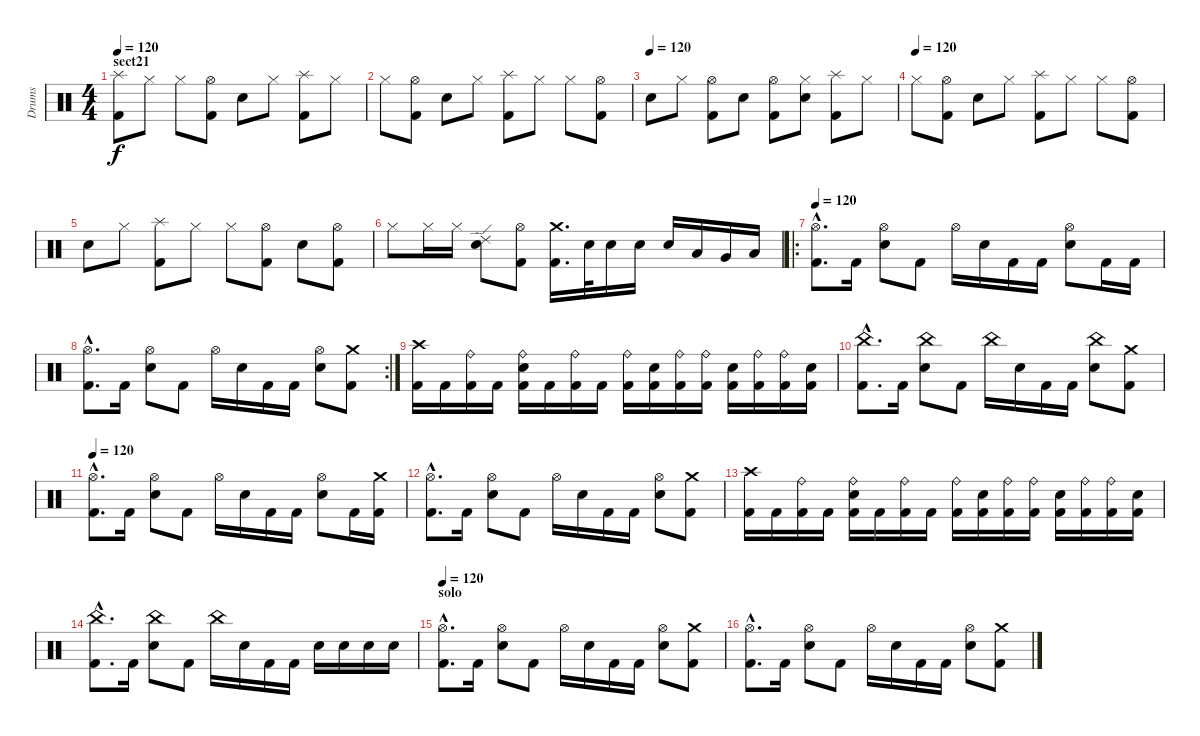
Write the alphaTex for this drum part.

\track ("Drums" "Drums") {instrument percussion}
\staff {score}
\articulation defaults
\ts (4 4)
\section ("" "sect21")
\tempo 120
\clef neutral
\ks c
("Splash (hit)" "Kick (hit) 2").8{dy f} "Hi-Hat (closed)".8 "Hi-Hat (closed)".8 ("Hi-Hat (open)" "Kick (hit) 2").8 "Electric Snare (hit)".8 "Hi-Hat (closed)".8 ("Splash (hit)" "Kick (hit) 2").8 "Hi-Hat (closed)".8 |
"Hi-Hat (closed)".8 ("Hi-Hat (open)" "Kick (hit) 2").8 "Electric Snare (hit)".8 "Hi-Hat (closed)".8 ("Splash (hit)" "Kick (hit) 2").8 "Hi-Hat (closed)".8 "Hi-Hat (closed)".8 ("Hi-Hat (open)" "Kick (hit) 2").8 |
\tempo (120)
"Electric Snare (hit)".8 "Hi-Hat (closed)".8 ("Hi-Hat (open)" "Kick (hit) 2").8 "Electric Snare (hit)".8 ("Hi-Hat (open)" "Kick (hit) 2").8 ("Hi-Hat (closed)" "Electric Snare (hit)").8 ("Splash (hit)" "Kick (hit) 2").8 "Hi-Hat (closed)".8 |
\tempo (120)
"Hi-Hat (closed)".8 ("Hi-Hat (open)" "Kick (hit) 2").8 "Electric Snare (hit)".8 "Hi-Hat (closed)".8 ("Splash (hit)" "Kick (hit) 2").8 "Hi-Hat (closed)".8 "Hi-Hat (closed)".8 ("Hi-Hat (open)" "Kick (hit) 2").8 |
"Electric Snare (hit)".8 "Hi-Hat (closed)".8 ("Splash (hit)" "Kick (hit) 2").8 "Hi-Hat (closed)".8 "Hi-Hat (closed)".8 ("Hi-Hat (open)" "Kick (hit) 2").8 "Electric Snare (hit)".8 ("Hi-Hat (open)" "Kick (hit) 2").8 |
"Hi-Hat (closed)".8 "Hi-Hat (closed)".16 "Hi-Hat (closed)".16 ("Electric Snare (hit)" "Ride (edge) 2").8 ("Hi-Hat (open)" "Kick (hit) 2").8 ("Crash medium (hit)" "Kick (hit) 2").16{d} "Electric Snare (hit)".32 "Electric Snare (hit)".16 "Electric Snare (hit)".16 "Electric Snare (hit)".16 "Low Tom (hit)".16 "Very Low Tom (hit)".16 "Low Floor Tom (hit)".16 |
\ro
\tempo 105
\tempo 120
("Hi-Hat (open)"{hac} "Kick (hit) 2"{hac}).8{d} "Kick (hit) 2".16 ("Hi-Hat (open)" "Electric Snare (hit)").8 "Kick (hit) 2".8 "Hi-Hat (open)".16 "Electric Snare (hit)".16 "Kick (hit) 2".16 "Kick (hit) 2".16 ("Hi-Hat (open)" "Electric Snare (hit)").8 "Kick (hit) 2".16 "Kick (hit) 2".16 |
\rc 2
("Hi-Hat (open)"{hac} "Kick (hit) 2"{hac}).8{d} "Kick (hit) 2".16 ("Hi-Hat (open)" "Electric Snare (hit)").8 "Kick (hit) 2".8 "Hi-Hat (open)".16 "Electric Snare (hit)".16 "Kick (hit) 2".16 "Kick (hit) 2".16 ("Hi-Hat (open)" "Electric Snare (hit)").8 ("Crash medium (hit)" "Kick (hit) 2").8 |
("Crash high (hit)" "Kick (hit) 2").16 "Kick (hit) 2".16 ("Ride (bell)" "Kick (hit) 2").16 "Kick (hit) 2".16 ("Ride (bell)" "Electric Snare (hit)" "Kick (hit) 2").16 "Kick (hit) 2".16 ("Ride (bell)" "Kick (hit) 2").16 "Kick (hit) 2".16 ("Ride (bell)" "Kick (hit) 2").16 ("Electric Snare (hit)" "Kick (hit) 2").16 ("Ride (bell)" "Kick (hit) 2").16 ("Ride (bell)" "Kick (hit) 2").16 ("Electric Snare (hit)" "Kick (hit) 2").16 ("Ride (bell)" "Kick (hit) 2").16 ("Ride (bell)" "Kick (hit) 2").16 ("Electric Snare (hit)" "Kick (hit) 2").16 |
("China (hit)"{hac} "Kick (hit) 2"{hac}).8{d} "Kick (hit) 2".16 ("China (hit)" "Electric Snare (hit)").8 "Kick (hit) 2".8 "China (hit)".16 "Electric Snare (hit)".16 "Kick (hit) 2".16 "Kick (hit) 2".16 ("China (hit)" "Electric Snare (hit)").8 ("Crash medium (hit)" "Kick (hit) 2").8 |
\tempo 120
("Hi-Hat (open)"{hac} "Kick (hit) 2"{hac}).8{d} "Kick (hit) 2".16 ("Hi-Hat (open)" "Electric Snare (hit)").8 "Kick (hit) 2".8 "Hi-Hat (open)".16 "Electric Snare (hit)".16 "Kick (hit) 2".16 "Kick (hit) 2".16 ("Hi-Hat (open)" "Electric Snare (hit)").8 "Kick (hit) 2".16 ("Crash medium (hit)" "Kick (hit) 2").16 |
("Hi-Hat (open)"{hac} "Kick (hit) 2"{hac}).8{d} "Kick (hit) 2".16 ("Hi-Hat (open)" "Electric Snare (hit)").8 "Kick (hit) 2".8 "Hi-Hat (open)".16 "Electric Snare (hit)".16 "Kick (hit) 2".16 "Kick (hit) 2".16 ("Hi-Hat (open)" "Electric Snare (hit)").8 ("Crash medium (hit)" "Kick (hit) 2").8 |
("Crash high (hit)" "Kick (hit) 2").16 "Kick (hit) 2".16 ("Ride (bell)" "Kick (hit) 2").16 "Kick (hit) 2".16 ("Ride (bell)" "Electric Snare (hit)" "Kick (hit) 2").16 "Kick (hit) 2".16 ("Ride (bell)" "Kick (hit) 2").16 "Kick (hit) 2".16 ("Ride (bell)" "Kick (hit) 2").16 ("Electric Snare (hit)" "Kick (hit) 2").16 ("Ride (bell)" "Kick (hit) 2").16 ("Ride (bell)" "Kick (hit) 2").16 ("Electric Snare (hit)" "Kick (hit) 2").16 ("Ride (bell)" "Kick (hit) 2").16 ("Ride (bell)" "Kick (hit) 2").16 ("Electric Snare (hit)" "Kick (hit) 2").16 |
("China (hit)"{hac} "Kick (hit) 2"{hac}).8{d} "Kick (hit) 2".16 ("China (hit)" "Electric Snare (hit)").8 "Kick (hit) 2".8 "China (hit)".16 "Electric Snare (hit)".16 "Kick (hit) 2".16 "Kick (hit) 2".16 "Electric Snare (hit)".16 "Electric Snare (hit)".16 "Electric Snare (hit)".16 "Electric Snare (hit)".16 |
\section ("" "solo")
\tempo 120
("Hi-Hat (open)"{hac} "Kick (hit) 2"{hac}).8{d} "Kick (hit) 2".16 ("Hi-Hat (open)" "Electric Snare (hit)").8 "Kick (hit) 2".8 "Hi-Hat (open)".16 "Electric Snare (hit)".16 "Kick (hit) 2".16 "Kick (hit) 2".16 ("Hi-Hat (open)" "Electric Snare (hit)").8 ("Crash medium (hit)" "Kick (hit) 2").8 |
("Hi-Hat (open)"{hac} "Kick (hit) 2"{hac}).8{d} "Kick (hit) 2".16 ("Hi-Hat (open)" "Electric Snare (hit)").8 "Kick (hit) 2".8 "Hi-Hat (open)".16 "Electric Snare (hit)".16 "Kick (hit) 2".16 "Kick (hit) 2".16 ("Hi-Hat (open)" "Electric Snare (hit)").8 ("Crash medium (hit)" "Kick (hit) 2").8
